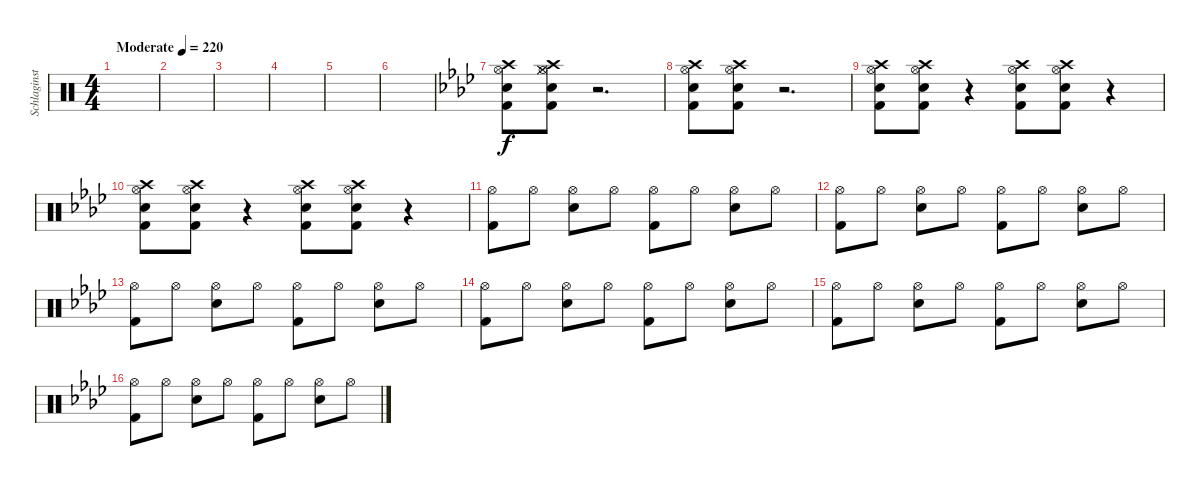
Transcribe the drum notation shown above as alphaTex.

\track ("Schlaginstrumente - Auswahl" "Schlaginst") {instrument percussion}
\staff {score}
\articulation defaults
\ts (4 4)
\tempo (220 "Moderate")
\clef neutral
\ks c
|
|
|
|
|
|
\ks fminor
("Hi-Hat (open)" "Crash high (hit)" "Kick (hit) 2" "Snare (hit) 2").8 ("Hi-Hat (open)" "Crash high (hit)" "Kick (hit) 2" "Snare (hit) 2" "Hi-Hat (closed)" "Hi-Hat (closed)").8 r.2{d} |
("Hi-Hat (open)" "Crash high (hit)" "Kick (hit) 2" "Snare (hit) 2").8 ("Hi-Hat (open)" "Crash high (hit)" "Kick (hit) 2" "Snare (hit) 2").8 r.2{d} |
("Hi-Hat (open)" "Crash high (hit)" "Kick (hit) 2" "Snare (hit) 2").8 ("Hi-Hat (open)" "Crash high (hit)" "Kick (hit) 2" "Snare (hit) 2").8 r.4 ("Hi-Hat (open)" "Crash high (hit)" "Kick (hit) 2" "Snare (hit) 2").8 ("Hi-Hat (open)" "Crash high (hit)" "Kick (hit) 2" "Snare (hit) 2").8 r.4 |
("Hi-Hat (open)" "Crash high (hit)" "Kick (hit) 2" "Snare (hit) 2").8 ("Hi-Hat (open)" "Crash high (hit)" "Kick (hit) 2" "Snare (hit) 2").8 r.4 ("Hi-Hat (open)" "Crash high (hit)" "Kick (hit) 2" "Snare (hit) 2").8 ("Hi-Hat (open)" "Crash high (hit)" "Kick (hit) 2" "Snare (hit) 2").8 r.4 |
("Hi-Hat (open)" "Kick (hit) 2").8 "Hi-Hat (open)".8 ("Hi-Hat (open)" "Snare (hit) 2").8 "Hi-Hat (open)".8 ("Hi-Hat (open)" "Kick (hit) 2").8 "Hi-Hat (open)".8 ("Hi-Hat (open)" "Snare (hit) 2").8 "Hi-Hat (open)".8 |
("Hi-Hat (open)" "Kick (hit) 2").8 "Hi-Hat (open)".8 ("Hi-Hat (open)" "Snare (hit) 2").8 "Hi-Hat (open)".8 ("Hi-Hat (open)" "Kick (hit) 2").8 "Hi-Hat (open)".8 ("Hi-Hat (open)" "Snare (hit) 2").8 "Hi-Hat (open)".8 |
("Hi-Hat (open)" "Kick (hit) 2").8 "Hi-Hat (open)".8 ("Hi-Hat (open)" "Snare (hit) 2").8 "Hi-Hat (open)".8 ("Hi-Hat (open)" "Kick (hit) 2").8 "Hi-Hat (open)".8 ("Hi-Hat (open)" "Snare (hit) 2").8 "Hi-Hat (open)".8 |
("Hi-Hat (open)" "Kick (hit) 2").8 "Hi-Hat (open)".8 ("Hi-Hat (open)" "Snare (hit) 2").8 "Hi-Hat (open)".8 ("Hi-Hat (open)" "Kick (hit) 2").8 "Hi-Hat (open)".8 ("Hi-Hat (open)" "Snare (hit) 2").8 "Hi-Hat (open)".8 |
("Hi-Hat (open)" "Kick (hit) 2").8 "Hi-Hat (open)".8 ("Hi-Hat (open)" "Snare (hit) 2").8 "Hi-Hat (open)".8 ("Hi-Hat (open)" "Kick (hit) 2").8 "Hi-Hat (open)".8 ("Hi-Hat (open)" "Snare (hit) 2").8 "Hi-Hat (open)".8 |
("Hi-Hat (open)" "Kick (hit) 2").8 "Hi-Hat (open)".8 ("Hi-Hat (open)" "Snare (hit) 2").8 "Hi-Hat (open)".8 ("Hi-Hat (open)" "Kick (hit) 2").8 "Hi-Hat (open)".8 ("Hi-Hat (open)" "Snare (hit) 2").8 "Hi-Hat (open)".8
